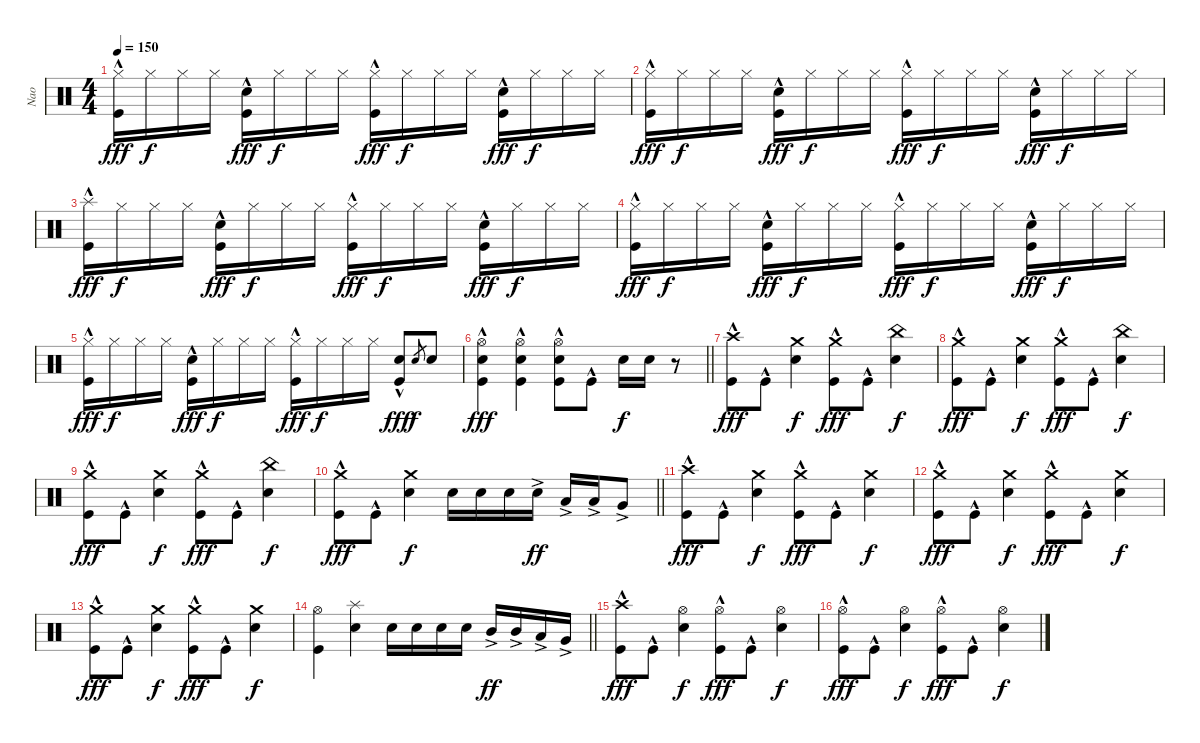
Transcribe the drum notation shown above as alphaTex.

\track ("Nao" "Nao") {instrument percussion}
\staff {score}
\articulation defaults
\ts (4 4)
\tempo 150
\clef neutral
\ks c
("Hi-Hat (closed)" "Kick (hit)"{hac}).16{dy fff} "Hi-Hat (closed)".16{dy f} "Hi-Hat (closed)".16 "Hi-Hat (closed)".16 ("Electric Snare (hit)" "Kick (hit)"{hac}).16{dy fff} "Hi-Hat (closed)".16{dy f} "Hi-Hat (closed)".16 "Hi-Hat (closed)".16 ("Hi-Hat (closed)" "Kick (hit)"{hac}).16{dy fff} "Hi-Hat (closed)".16{dy f} "Hi-Hat (closed)".16 "Hi-Hat (closed)".16 ("Electric Snare (hit)" "Kick (hit)"{hac}).16{dy fff} "Hi-Hat (closed)".16{dy f} "Hi-Hat (closed)".16 "Hi-Hat (closed)".16 |
("Hi-Hat (closed)" "Kick (hit)"{hac}).16{dy fff} "Hi-Hat (closed)".16{dy f} "Hi-Hat (closed)".16 "Hi-Hat (closed)".16 ("Electric Snare (hit)" "Kick (hit)"{hac}).16{dy fff} "Hi-Hat (closed)".16{dy f} "Hi-Hat (closed)".16 "Hi-Hat (closed)".16 ("Hi-Hat (closed)" "Kick (hit)"{hac}).16{dy fff} "Hi-Hat (closed)".16{dy f} "Hi-Hat (closed)".16 "Hi-Hat (closed)".16 ("Electric Snare (hit)" "Kick (hit)"{hac}).16{dy fff} "Hi-Hat (closed)".16{dy f} "Hi-Hat (closed)".16 "Hi-Hat (closed)".16 |
("Splash (hit)" "Kick (hit)"{hac}).16{dy fff} "Hi-Hat (closed)".16{dy f} "Hi-Hat (closed)".16 "Hi-Hat (closed)".16 ("Electric Snare (hit)" "Kick (hit)"{hac}).16{dy fff} "Hi-Hat (closed)".16{dy f} "Hi-Hat (closed)".16 "Hi-Hat (closed)".16 ("Hi-Hat (closed)" "Kick (hit)"{hac}).16{dy fff} "Hi-Hat (closed)".16{dy f} "Hi-Hat (closed)".16 "Hi-Hat (closed)".16 ("Electric Snare (hit)" "Kick (hit)"{hac}).16{dy fff} "Hi-Hat (closed)".16{dy f} "Hi-Hat (closed)".16 "Hi-Hat (closed)".16 |
("Hi-Hat (closed)" "Kick (hit)"{hac}).16{dy fff} "Hi-Hat (closed)".16{dy f} "Hi-Hat (closed)".16 "Hi-Hat (closed)".16 ("Electric Snare (hit)" "Kick (hit)"{hac}).16{dy fff} "Hi-Hat (closed)".16{dy f} "Hi-Hat (closed)".16 "Hi-Hat (closed)".16 ("Hi-Hat (closed)" "Kick (hit)"{hac}).16{dy fff} "Hi-Hat (closed)".16{dy f} "Hi-Hat (closed)".16 "Hi-Hat (closed)".16 ("Electric Snare (hit)" "Kick (hit)"{hac}).16{dy fff} "Hi-Hat (closed)".16{dy f} "Hi-Hat (closed)".16 "Hi-Hat (closed)".16 |
("Hi-Hat (closed)" "Kick (hit)"{hac}).16{dy fff} "Hi-Hat (closed)".16{dy f} "Hi-Hat (closed)".16 "Hi-Hat (closed)".16 ("Electric Snare (hit)" "Kick (hit)"{hac}).16{dy fff} "Hi-Hat (closed)".16{dy f} "Hi-Hat (closed)".16 "Hi-Hat (closed)".16 ("Hi-Hat (closed)" "Kick (hit)"{hac}).16{dy fff} "Hi-Hat (closed)".16{dy f} "Hi-Hat (closed)".16 "Hi-Hat (closed)".16 ("Electric Snare (hit)" "Kick (hit)"{hac}).8{dy fff} "Electric Snare (hit)".8{gr dy f} "Electric Snare (hit)".8 |
\barLineRight lightlight
("Hi-Hat (open)" "Electric Snare (hit)" "Kick (hit)"{hac}).4{dy fff} ("Hi-Hat (open)" "Electric Snare (hit)" "Kick (hit)"{hac}).4 ("Hi-Hat (open)" "Electric Snare (hit)" "Kick (hit)"{hac}).8 "Kick (hit)"{hac}.8 "Electric Snare (hit)".16{dy f} "Electric Snare (hit)".16 r.8 |
\section ("" "")
("Crash high (hit)" "Kick (hit)"{hac}).8{dy fff} "Kick (hit)"{hac}.8 ("Crash medium (hit)" "Electric Snare (hit)").4{dy f} ("Crash medium (hit)" "Kick (hit)"{hac}).8{dy fff} "Kick (hit)"{hac}.8 ("China (hit)" "Electric Snare (hit)").4{dy f} |
("Crash medium (hit)" "Kick (hit)"{hac}).8{dy fff} "Kick (hit)"{hac}.8 ("Crash medium (hit)" "Electric Snare (hit)").4{dy f} ("Crash medium (hit)" "Kick (hit)"{hac}).8{dy fff} "Kick (hit)"{hac}.8 ("China (hit)" "Electric Snare (hit)").4{dy f} |
("Crash medium (hit)" "Kick (hit)"{hac}).8{dy fff} "Kick (hit)"{hac}.8 ("Crash medium (hit)" "Electric Snare (hit)").4{dy f} ("Crash medium (hit)" "Kick (hit)"{hac}).8{dy fff} "Kick (hit)"{hac}.8 ("China (hit)" "Electric Snare (hit)").4{dy f} |
\barLineRight lightlight
("Crash medium (hit)" "Kick (hit)"{hac}).8{dy fff} "Kick (hit)"{hac}.8 ("Crash medium (hit)" "Electric Snare (hit)").4{dy f} "Electric Snare (hit)".16 "Electric Snare (hit)".16 "Electric Snare (hit)".16 "Electric Snare (hit)"{ac}.16{dy ff} "Low Tom (hit)"{ac}.16 "Low Tom (hit)"{ac}.16 "Very Low Tom (hit)"{ac}.8 |
("Crash high (hit)" "Kick (hit)"{hac}).8{dy fff} "Kick (hit)"{hac}.8 ("Crash medium (hit)" "Electric Snare (hit)").4{dy f} ("Crash medium (hit)" "Kick (hit)"{hac}).8{dy fff} "Kick (hit)"{hac}.8 ("Crash medium (hit)" "Electric Snare (hit)").4{dy f} |
("Crash medium (hit)" "Kick (hit)"{hac}).8{dy fff} "Kick (hit)"{hac}.8 ("Crash medium (hit)" "Electric Snare (hit)").4{dy f} ("Crash medium (hit)" "Kick (hit)"{hac}).8{dy fff} "Kick (hit)"{hac}.8 ("Crash medium (hit)" "Electric Snare (hit)").4{dy f} |
("Crash medium (hit)" "Kick (hit)"{hac}).8{dy fff} "Kick (hit)"{hac}.8 ("Crash medium (hit)" "Electric Snare (hit)").4{dy f} ("Crash medium (hit)" "Kick (hit)"{hac}).8{dy fff} "Kick (hit)"{hac}.8 ("Crash medium (hit)" "Electric Snare (hit)").4{dy f} |
\barLineRight lightlight
("Hi-Hat (open)" "Kick (hit)").4 ("Splash (hit)" "Electric Snare (hit)").4 "Electric Snare (hit)".16 "Electric Snare (hit)".16 "Electric Snare (hit)".16 "Electric Snare (hit)".16 "Mid Tom (hit)"{ac}.16{dy ff} "Mid Tom (hit)"{ac}.16 "Low Tom (hit)"{ac}.16 "Very Low Tom (hit)"{ac}.16 |
\section ("" "")
("Crash high (hit)" "Kick (hit)"{hac}).8{dy fff} "Kick (hit)"{hac}.8 ("Hi-Hat (open)" "Electric Snare (hit)").4{dy f} ("Hi-Hat (open)" "Kick (hit)"{hac}).8{dy fff} "Kick (hit)"{hac}.8 ("Hi-Hat (open)" "Electric Snare (hit)").4{dy f} |
("Hi-Hat (open)" "Kick (hit)"{hac}).8{dy fff} "Kick (hit)"{hac}.8 ("Hi-Hat (open)" "Electric Snare (hit)").4{dy f} ("Hi-Hat (open)" "Kick (hit)"{hac}).8{dy fff} "Kick (hit)"{hac}.8 ("Hi-Hat (open)" "Electric Snare (hit)").4{dy f}
